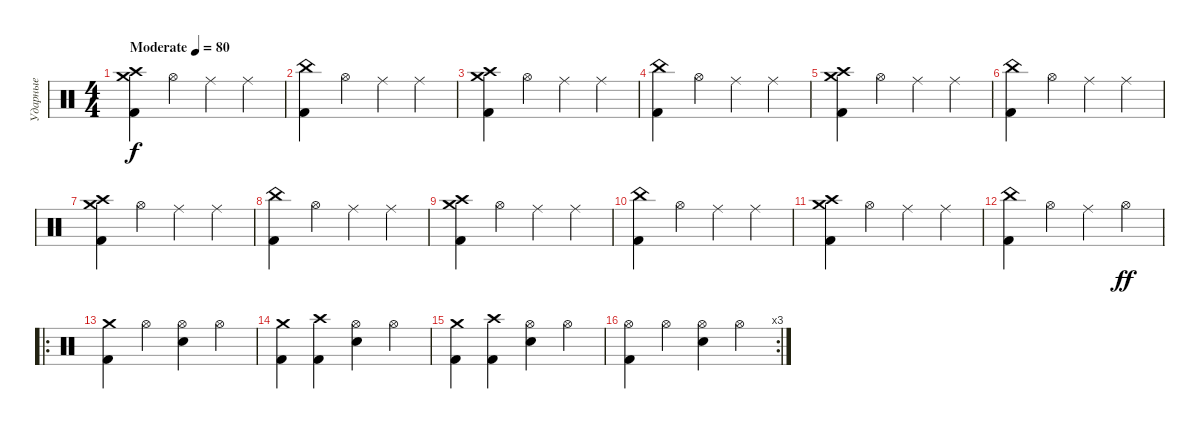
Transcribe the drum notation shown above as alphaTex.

\track ("Ударные" "Ударные") {instrument percussion}
\staff {score}
\articulation defaults
\ts (4 4)
\tempo (80 "Moderate")
\clef neutral
\ks c
("Crash medium (hit)" "Crash high (hit)" "Kick (hit) 2").4{dy f} "Hi-Hat (open)".4 "Ride (middle)".4 "Ride (middle)".4 |
("China (hit)" "Kick (hit) 2").4 "Hi-Hat (open)".4 "Ride (middle)".4 "Ride (middle)".4 |
("Crash medium (hit)" "Crash high (hit)" "Kick (hit) 2").4 "Hi-Hat (open)".4 "Ride (middle)".4 "Ride (middle)".4 |
("China (hit)" "Kick (hit) 2").4 "Hi-Hat (open)".4 "Ride (middle)".4 "Ride (middle)".4 |
("Crash medium (hit)" "Crash high (hit)" "Kick (hit) 2").4 "Hi-Hat (open)".4 "Ride (middle)".4 "Ride (middle)".4 |
("China (hit)" "Kick (hit) 2").4 "Hi-Hat (open)".4 "Ride (middle)".4 "Ride (middle)".4 |
("Crash medium (hit)" "Crash high (hit)" "Kick (hit) 2").4 "Hi-Hat (open)".4 "Ride (middle)".4 "Ride (middle)".4 |
("China (hit)" "Kick (hit) 2").4 "Hi-Hat (open)".4 "Ride (middle)".4 "Ride (middle)".4 |
("Crash medium (hit)" "Crash high (hit)" "Kick (hit) 2").4 "Hi-Hat (open)".4 "Ride (middle)".4 "Ride (middle)".4 |
("China (hit)" "Kick (hit) 2").4 "Hi-Hat (open)".4 "Ride (middle)".4 "Ride (middle)".4 |
("Crash medium (hit)" "Crash high (hit)" "Kick (hit) 2").4 "Hi-Hat (open)".4 "Ride (middle)".4 "Ride (middle)".4 |
("China (hit)" "Kick (hit) 2").4 "Hi-Hat (open)".4 "Ride (middle)".4 "Hi-Hat (open)".4{dy ff} |
\ro
("Crash medium (hit)" "Kick (hit) 2").4 "Hi-Hat (open)".4 ("Hi-Hat (open)" "Electric Snare (hit)").4 "Hi-Hat (open)".4 |
("Crash medium (hit)" "Kick (hit) 2").4 ("Crash high (hit)" "Kick (hit) 2").4 ("Hi-Hat (open)" "Electric Snare (hit)").4 "Hi-Hat (open)".4 |
("Crash medium (hit)" "Kick (hit) 2").4 ("Crash high (hit)" "Kick (hit) 2").4 ("Hi-Hat (open)" "Electric Snare (hit)").4 "Hi-Hat (open)".4 |
\rc 3
("Hi-Hat (open)" "Kick (hit) 2").4 "Hi-Hat (open)".4 ("Hi-Hat (open)" "Electric Snare (hit)").4 "Hi-Hat (open)".4
